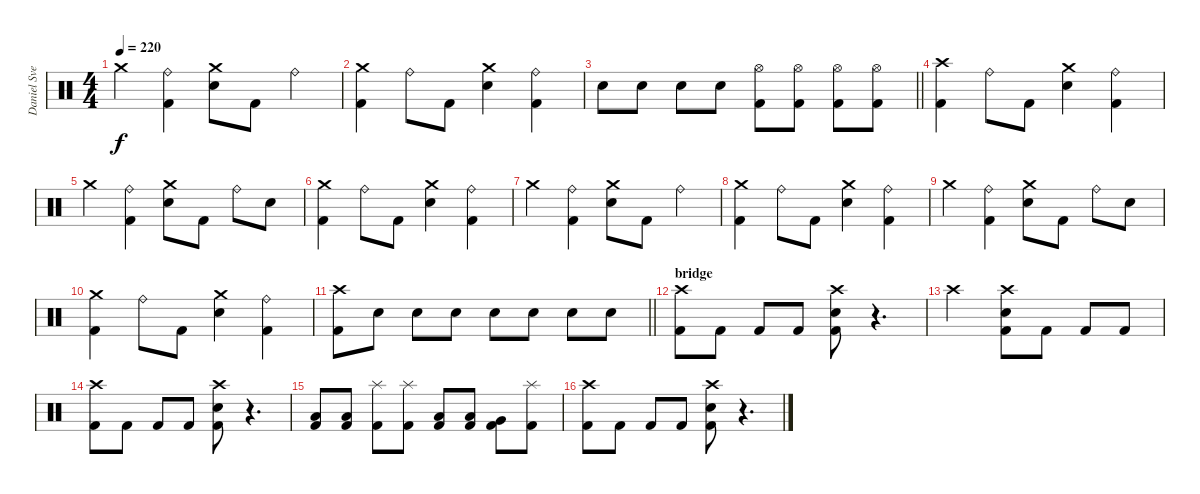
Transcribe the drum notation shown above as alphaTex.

\track ("Daniel Svensson" "Daniel Sve") {instrument percussion}
\staff {score}
\articulation defaults
\ts (4 4)
\tempo 220
\clef neutral
\ks c "Crash medium (hit)".4{dy f}
("Ride (bell)" "Kick (hit) 2").4 ("Crash medium (hit)" "Electric Snare (hit)").8 "Kick (hit) 2".8 "Ride (bell)".4 |
("Crash medium (hit)" "Kick (hit) 2").4 "Ride (bell)".8 "Kick (hit) 2".8 ("Crash medium (hit)" "Electric Snare (hit)").4 ("Ride (bell)" "Kick (hit) 2").4 |
\barLineRight lightlight "Electric Snare (hit)".8 "Electric Snare (hit)".8 "Electric Snare (hit)".8 "Electric Snare (hit)".8
("Hi-Hat (open)" "Kick (hit) 2").8 ("Hi-Hat (open)" "Kick (hit) 2").8 ("Hi-Hat (open)" "Kick (hit) 2").8 ("Hi-Hat (open)" "Kick (hit) 2").8 |
("Crash high (hit)" "Kick (hit) 2").4 "Ride (bell)".8 "Kick (hit) 2".8 ("Crash medium (hit)" "Electric Snare (hit)").4 ("Ride (bell)" "Kick (hit) 2").4 |
"Crash medium (hit)".4 ("Ride (bell)" "Kick (hit) 2").4 ("Crash medium (hit)" "Electric Snare (hit)").8 "Kick (hit) 2".8 "Ride (bell)".8 "Electric Snare (hit)".8 |
("Crash medium (hit)" "Kick (hit) 2").4 "Ride (bell)".8 "Kick (hit) 2".8 ("Crash medium (hit)" "Electric Snare (hit)").4 ("Ride (bell)" "Kick (hit) 2").4 |
"Crash medium (hit)".4 ("Ride (bell)" "Kick (hit) 2").4 ("Crash medium (hit)" "Electric Snare (hit)").8 "Kick (hit) 2".8 "Ride (bell)".4 |
("Crash medium (hit)" "Kick (hit) 2").4 "Ride (bell)".8 "Kick (hit) 2".8 ("Crash medium (hit)" "Electric Snare (hit)").4 ("Ride (bell)" "Kick (hit) 2").4 |
"Crash medium (hit)".4 ("Ride (bell)" "Kick (hit) 2").4 ("Crash medium (hit)" "Electric Snare (hit)").8 "Kick (hit) 2".8 "Ride (bell)".8 "Electric Snare (hit)".8 |
("Crash medium (hit)" "Kick (hit) 2").4 "Ride (bell)".8 "Kick (hit) 2".8 ("Crash medium (hit)" "Electric Snare (hit)").4 ("Ride (bell)" "Kick (hit) 2").4 |
\barLineRight lightlight
("Crash high (hit)" "Kick (hit) 2").8 "Electric Snare (hit)".8 "Electric Snare (hit)".8 "Electric Snare (hit)".8 "Electric Snare (hit)".8 "Electric Snare (hit)".8 "Electric Snare (hit)".8 "Electric Snare (hit)".8 |
\section ("" "bridge")
("Crash high (hit)" "Kick (hit) 2").8 "Kick (hit) 2".8 "Kick (hit) 2".8 "Kick (hit) 2".8 ("Crash high (hit)" "Electric Snare (hit)" "Kick (hit) 2").8 r.4{d} |
"Crash high (hit)".2 ("Crash high (hit)" "Electric Snare (hit)" "Kick (hit) 2").8 "Kick (hit) 2".8 "Kick (hit) 2".8 "Kick (hit) 2".8 |
("Crash high (hit)" "Kick (hit) 2").8 "Kick (hit) 2".8 "Kick (hit) 2".8 "Kick (hit) 2".8 ("Crash high (hit)" "Electric Snare (hit)" "Kick (hit) 2").8 r.4{d} |
("Low Tom (hit)" "Kick (hit) 2").8 ("Low Tom (hit)" "Kick (hit) 2").8 ("Splash (hit)" "Kick (hit) 2").8 ("Splash (hit)" "Kick (hit) 2").8 ("Low Tom (hit)" "Kick (hit) 2").8 ("Low Tom (hit)" "Kick (hit) 2").8 ("Very Low Tom (hit)" "Kick (hit) 2").8 ("Splash (hit)" "Kick (hit) 2").8 |
("Crash high (hit)" "Kick (hit) 2").8 "Kick (hit) 2".8 "Kick (hit) 2".8 "Kick (hit) 2".8 ("Crash high (hit)" "Electric Snare (hit)" "Kick (hit) 2").8 r.4{d}
